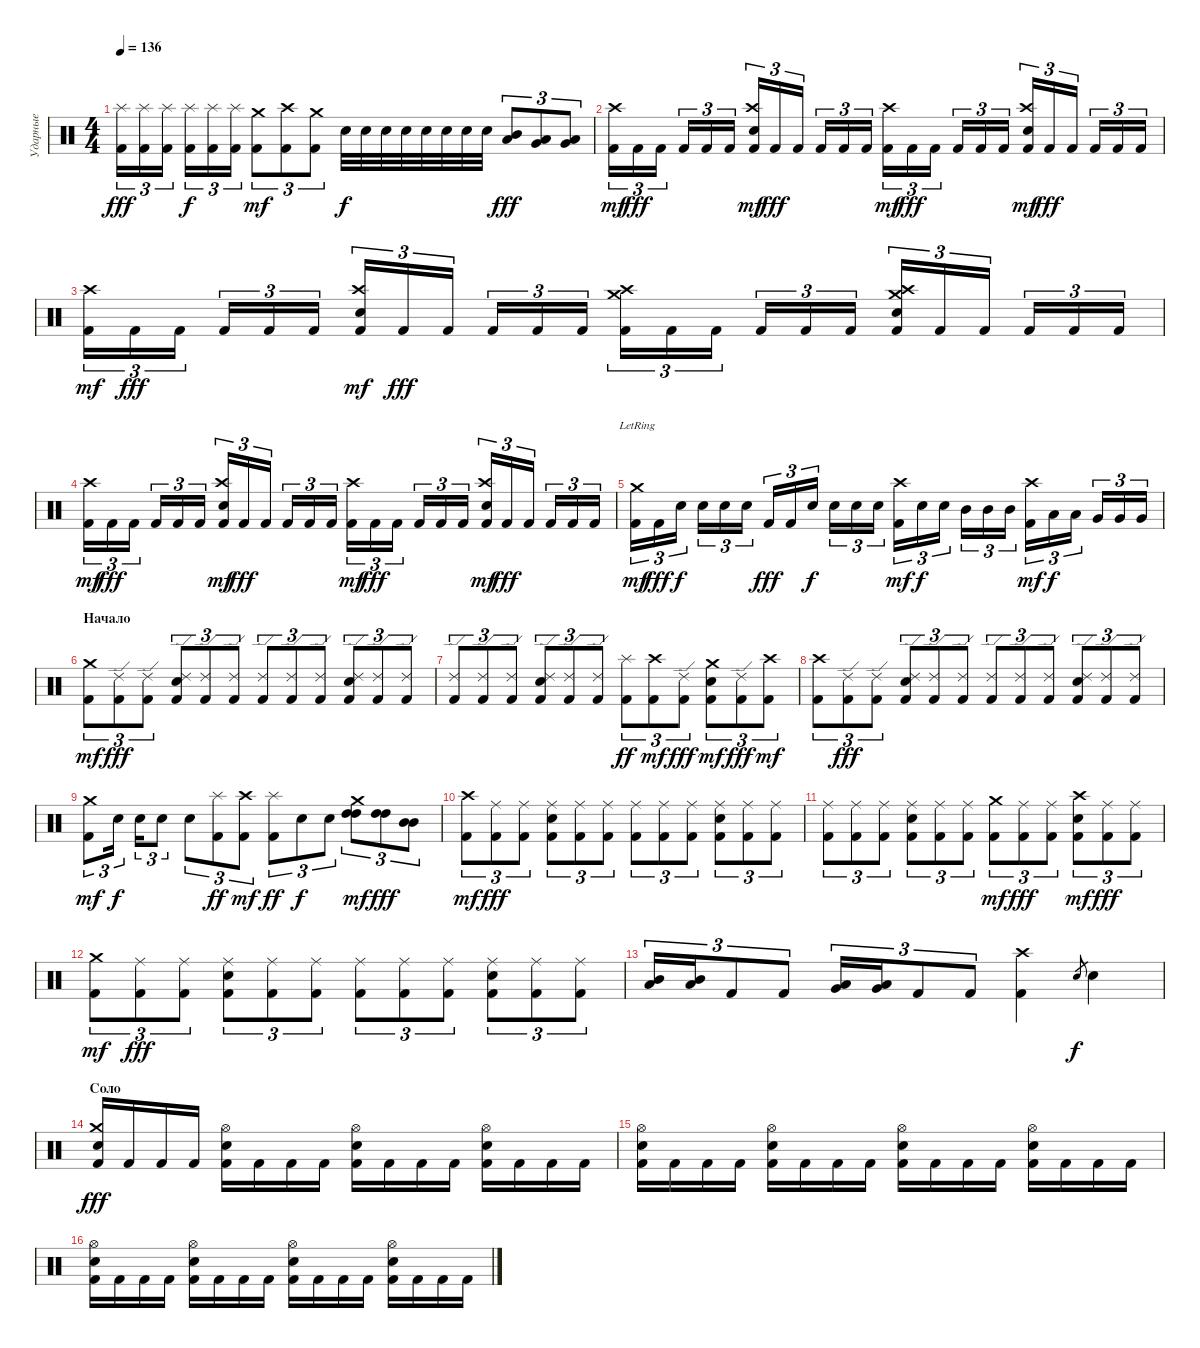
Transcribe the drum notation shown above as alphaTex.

\track ("Ударные" "Ударные") {instrument percussion}
\staff {score}
\articulation defaults
\ts (4 4)
\tempo 136
\clef neutral
\ks c
("Kick (hit) 2" "Splash (hit)").16{tu (3 2) dy fff} ("Kick (hit) 2" "Splash (hit)").16{tu (3 2)} ("Kick (hit) 2" "Splash (hit)").16{tu (3 2)} ("Kick (hit) 2" "Splash (hit)").16{tu (3 2) dy f} ("Kick (hit) 2" "Splash (hit)").16{tu (3 2)} ("Kick (hit) 2" "Splash (hit)").16{tu (3 2)} ("Kick (hit) 2" "Crash medium (hit)").8{tu (3 2) dy mf} ("Kick (hit) 2" "Crash high (hit)").8{tu (3 2)} ("Kick (hit) 2" "Crash medium (hit)").8{tu (3 2)} "Electric Snare (hit)".32{dy f} "Electric Snare (hit)".32 "Electric Snare (hit)".32 "Electric Snare (hit)".32 "Electric Snare (hit)".32 "Electric Snare (hit)".32 "Electric Snare (hit)".32 "Electric Snare (hit)".32 ("Mid Tom (hit)" "Low Tom (hit)").8{tu (3 2) dy fff} ("Low Tom (hit)" "Very Low Tom (hit)").8{tu (3 2)} ("Very Low Tom (hit)" "Low Floor Tom (hit)").8{tu (3 2)} |
("Kick (hit) 2" "Crash high (hit)").16{tu (3 2) dy mf} "Kick (hit) 2".16{tu (3 2) dy fff} "Kick (hit) 2".16{tu (3 2)} "Kick (hit) 2".16{tu (3 2)} "Kick (hit) 2".16{tu (3 2)} "Kick (hit) 2".16{tu (3 2)} ("Kick (hit) 2" "Crash high (hit)" "Electric Snare (hit)").16{tu (3 2) dy mf} "Kick (hit) 2".16{tu (3 2) dy fff} "Kick (hit) 2".16{tu (3 2)} "Kick (hit) 2".16{tu (3 2)} "Kick (hit) 2".16{tu (3 2)} "Kick (hit) 2".16{tu (3 2)} ("Kick (hit) 2" "Crash high (hit)").16{tu (3 2) dy mf} "Kick (hit) 2".16{tu (3 2) dy fff} "Kick (hit) 2".16{tu (3 2)} "Kick (hit) 2".16{tu (3 2)} "Kick (hit) 2".16{tu (3 2)} "Kick (hit) 2".16{tu (3 2)} ("Kick (hit) 2" "Crash high (hit)" "Electric Snare (hit)").16{tu (3 2) dy mf} "Kick (hit) 2".16{tu (3 2) dy fff} "Kick (hit) 2".16{tu (3 2)} "Kick (hit) 2".16{tu (3 2)} "Kick (hit) 2".16{tu (3 2)} "Kick (hit) 2".16{tu (3 2)} |
("Kick (hit) 2" "Crash high (hit)").16{tu (3 2) dy mf} "Kick (hit) 2".16{tu (3 2) dy fff} "Kick (hit) 2".16{tu (3 2)} "Kick (hit) 2".16{tu (3 2)} "Kick (hit) 2".16{tu (3 2)} "Kick (hit) 2".16{tu (3 2)} ("Kick (hit) 2" "Crash high (hit)" "Electric Snare (hit)").16{tu (3 2) dy mf} "Kick (hit) 2".16{tu (3 2) dy fff} "Kick (hit) 2".16{tu (3 2)} "Kick (hit) 2".16{tu (3 2)} "Kick (hit) 2".16{tu (3 2)} "Kick (hit) 2".16{tu (3 2)} ("Kick (hit) 2" "Crash high (hit)" "Crash medium (hit)").16{tu (3 2)} "Kick (hit) 2".16{tu (3 2)} "Kick (hit) 2".16{tu (3 2)} "Kick (hit) 2".16{tu (3 2)} "Kick (hit) 2".16{tu (3 2)} "Kick (hit) 2".16{tu (3 2)} ("Kick (hit) 2" "Crash high (hit)" "Electric Snare (hit)" "Crash medium (hit)").16{tu (3 2)} "Kick (hit) 2".16{tu (3 2)} "Kick (hit) 2".16{tu (3 2)} "Kick (hit) 2".16{tu (3 2)} "Kick (hit) 2".16{tu (3 2)} "Kick (hit) 2".16{tu (3 2)} |
("Kick (hit) 2" "Crash high (hit)").16{tu (3 2) dy mf} "Kick (hit) 2".16{tu (3 2) dy fff} "Kick (hit) 2".16{tu (3 2)} "Kick (hit) 2".16{tu (3 2)} "Kick (hit) 2".16{tu (3 2)} "Kick (hit) 2".16{tu (3 2)} ("Kick (hit) 2" "Crash high (hit)" "Electric Snare (hit)").16{tu (3 2) dy mf} "Kick (hit) 2".16{tu (3 2) dy fff} "Kick (hit) 2".16{tu (3 2)} "Kick (hit) 2".16{tu (3 2)} "Kick (hit) 2".16{tu (3 2)} "Kick (hit) 2".16{tu (3 2)} ("Kick (hit) 2" "Crash high (hit)").16{tu (3 2) dy mf} "Kick (hit) 2".16{tu (3 2) dy fff} "Kick (hit) 2".16{tu (3 2)} "Kick (hit) 2".16{tu (3 2)} "Kick (hit) 2".16{tu (3 2)} "Kick (hit) 2".16{tu (3 2)} ("Kick (hit) 2" "Crash high (hit)" "Electric Snare (hit)").16{tu (3 2) dy mf} "Kick (hit) 2".16{tu (3 2) dy fff} "Kick (hit) 2".16{tu (3 2)} "Kick (hit) 2".16{tu (3 2)} "Kick (hit) 2".16{tu (3 2)} "Kick (hit) 2".16{tu (3 2)} |
("Kick (hit) 2" "Crash medium (hit)"{lr}).16{tu (3 2) dy mf} "Kick (hit) 2".16{tu (3 2) dy fff} "Electric Snare (hit)".16{tu (3 2) dy f} "Electric Snare (hit)".16{tu (3 2)} "Electric Snare (hit)".16{tu (3 2)} "Electric Snare (hit)".16{tu (3 2)} "Kick (hit) 2".16{tu (3 2) dy fff} "Kick (hit) 2".16{tu (3 2)} "Electric Snare (hit)".16{tu (3 2) dy f} "Electric Snare (hit)".16{tu (3 2)} "Electric Snare (hit)".16{tu (3 2)} "Electric Snare (hit)".16{tu (3 2)} ("Kick (hit) 2" "Crash high (hit)").16{tu (3 2) dy mf} "Electric Snare (hit)".16{tu (3 2) dy f} "Electric Snare (hit)".16{tu (3 2)} "Mid Tom (hit)".16{tu (3 2)} "Mid Tom (hit)".16{tu (3 2)} "Mid Tom (hit)".16{tu (3 2)} ("Kick (hit) 2" "Crash high (hit)").16{tu (3 2) dy mf} "Low Tom (hit)".16{tu (3 2) dy f} "Low Tom (hit)".16{tu (3 2)} "Very Low Tom (hit)".16{tu (3 2)} "Very Low Tom (hit)".16{tu (3 2)} "Very Low Tom (hit)".16{tu (3 2)} |
\section ("" "Начало")
("Kick (hit) 2" "Crash medium (hit)").8{tu (3 2) dy mf} ("Kick (hit) 2" "Ride (edge) 2").8{tu (3 2) dy fff} ("Kick (hit) 2" "Ride (edge) 2").8{tu (3 2)} ("Kick (hit) 2" "Electric Snare (hit)" "Ride (edge) 2").8{tu (3 2)} ("Kick (hit) 2" "Ride (edge) 2").8{tu (3 2)} ("Kick (hit) 2" "Ride (edge) 2").8{tu (3 2)} ("Kick (hit) 2" "Ride (edge) 2").8{tu (3 2)} ("Kick (hit) 2" "Ride (edge) 2").8{tu (3 2)} ("Kick (hit) 2" "Ride (edge) 2").8{tu (3 2)} ("Kick (hit) 2" "Electric Snare (hit)" "Ride (edge) 2").8{tu (3 2)} ("Kick (hit) 2" "Ride (edge) 2").8{tu (3 2)} ("Kick (hit) 2" "Ride (edge) 2").8{tu (3 2)} |
("Kick (hit) 2" "Ride (edge) 2").8{tu (3 2)} ("Kick (hit) 2" "Ride (edge) 2").8{tu (3 2)} ("Kick (hit) 2" "Ride (edge) 2").8{tu (3 2)} ("Kick (hit) 2" "Electric Snare (hit)" "Ride (edge) 2").8{tu (3 2)} ("Kick (hit) 2" "Ride (edge) 2").8{tu (3 2)} ("Kick (hit) 2" "Ride (edge) 2").8{tu (3 2)} ("Kick (hit) 2" "Splash (hit)").8{tu (3 2) dy ff} ("Kick (hit) 2" "Crash high (hit)").8{tu (3 2) dy mf} ("Kick (hit) 2" "Ride (edge) 2").8{tu (3 2) dy fff} ("Kick (hit) 2" "Electric Snare (hit)" "Crash medium (hit)").8{tu (3 2) dy mf} ("Kick (hit) 2" "Ride (edge) 2").8{tu (3 2) dy fff} ("Kick (hit) 2" "Crash high (hit)").8{tu (3 2) dy mf} |
("Kick (hit) 2" "Crash high (hit)").8{tu (3 2)} ("Kick (hit) 2" "Ride (edge) 2").8{tu (3 2) dy fff} ("Kick (hit) 2" "Ride (edge) 2").8{tu (3 2)} ("Kick (hit) 2" "Electric Snare (hit)" "Ride (edge) 2").8{tu (3 2)} ("Kick (hit) 2" "Ride (edge) 2").8{tu (3 2)} ("Kick (hit) 2" "Ride (edge) 2").8{tu (3 2)} ("Kick (hit) 2" "Ride (edge) 2").8{tu (3 2)} ("Kick (hit) 2" "Ride (edge) 2").8{tu (3 2)} ("Kick (hit) 2" "Ride (edge) 2").8{tu (3 2)} ("Kick (hit) 2" "Electric Snare (hit)" "Ride (edge) 2").8{tu (3 2)} ("Kick (hit) 2" "Ride (edge) 2").8{tu (3 2)} ("Kick (hit) 2" "Ride (edge) 2").8{tu (3 2)} |
("Kick (hit) 2" "Crash medium (hit)").8{tu (3 2) dy mf} "Electric Snare (hit)".16{tu (3 2) dy f} "Electric Snare (hit)".16{tu (3 2)} "Electric Snare (hit)".8{tu (3 2)} "Electric Snare (hit)".8{tu (3 2)} ("Kick (hit) 2" "Splash (hit)").8{tu (3 2) dy ff} ("Kick (hit) 2" "Crash high (hit)").8{tu (3 2) dy mf} ("Kick (hit) 2" "Splash (hit)").8{tu (3 2) dy ff} "Electric Snare (hit)".8{tu (3 2) dy f} "Electric Snare (hit)".8{tu (3 2)} ("High Tom (hit)" "High Tom (hit)" "Crash medium (hit)").8{tu (3 2) dy mf} ("High Tom (hit)" "High Tom (hit)").8{tu (3 2) dy fff} ("Mid Tom (hit)" "Mid Tom (hit)").8{tu (3 2)} |
("Kick (hit) 2" "Crash high (hit)").8{tu (3 2) dy mf} ("Kick (hit) 2" "Ride (middle)").8{tu (3 2) dy fff} ("Kick (hit) 2" "Ride (middle)").8{tu (3 2)} ("Kick (hit) 2" "Electric Snare (hit)" "Ride (middle)").8{tu (3 2)} ("Kick (hit) 2" "Ride (middle)").8{tu (3 2)} ("Kick (hit) 2" "Ride (middle)").8{tu (3 2)} ("Kick (hit) 2" "Ride (middle)").8{tu (3 2)} ("Kick (hit) 2" "Ride (middle)").8{tu (3 2)} ("Kick (hit) 2" "Ride (middle)").8{tu (3 2)} ("Kick (hit) 2" "Electric Snare (hit)" "Ride (middle)").8{tu (3 2)} ("Kick (hit) 2" "Ride (middle)").8{tu (3 2)} ("Kick (hit) 2" "Ride (middle)").8{tu (3 2)} |
("Kick (hit) 2" "Ride (middle)").8{tu (3 2)} ("Kick (hit) 2" "Ride (middle)").8{tu (3 2)} ("Kick (hit) 2" "Ride (middle)").8{tu (3 2)} ("Kick (hit) 2" "Electric Snare (hit)" "Ride (middle)").8{tu (3 2)} ("Kick (hit) 2" "Ride (middle)").8{tu (3 2)} ("Kick (hit) 2" "Ride (middle)").8{tu (3 2)} ("Kick (hit) 2" "Crash medium (hit)").8{tu (3 2) dy mf} ("Kick (hit) 2" "Ride (middle)").8{tu (3 2) dy fff} ("Kick (hit) 2" "Ride (middle)").8{tu (3 2)} ("Kick (hit) 2" "Electric Snare (hit)" "Crash high (hit)").8{tu (3 2) dy mf} ("Kick (hit) 2" "Ride (middle)").8{tu (3 2) dy fff} ("Kick (hit) 2" "Ride (middle)").8{tu (3 2)} |
("Kick (hit) 2" "Crash medium (hit)").8{tu (3 2) dy mf} ("Kick (hit) 2" "Ride (middle)").8{tu (3 2) dy fff} ("Kick (hit) 2" "Ride (middle)").8{tu (3 2)} ("Kick (hit) 2" "Electric Snare (hit)" "Ride (middle)").8{tu (3 2)} ("Kick (hit) 2" "Ride (middle)").8{tu (3 2)} ("Kick (hit) 2" "Ride (middle)").8{tu (3 2)} ("Kick (hit) 2" "Ride (middle)").8{tu (3 2)} ("Kick (hit) 2" "Ride (middle)").8{tu (3 2)} ("Kick (hit) 2" "Ride (middle)").8{tu (3 2)} ("Kick (hit) 2" "Electric Snare (hit)" "Ride (middle)").8{tu (3 2)} ("Kick (hit) 2" "Ride (middle)").8{tu (3 2)} ("Kick (hit) 2" "Ride (middle)").8{tu (3 2)} |
("Low Tom (hit)" "Mid Tom (hit)").16{tu (3 2)} ("Low Tom (hit)" "Mid Tom (hit)").16{tu (3 2)} "Kick (hit) 2".8{tu (3 2)} "Kick (hit) 2".8{tu (3 2)} ("Very Low Tom (hit)" "Low Tom (hit)").16{tu (3 2)} ("Very Low Tom (hit)" "Low Tom (hit)").16{tu (3 2)} "Kick (hit) 2".8{tu (3 2)} "Kick (hit) 2".8{tu (3 2)} ("Crash high (hit)" "Kick (hit) 2").4 "Electric Snare (hit)".8{gr dy f} "Electric Snare (hit)".4 |
\section ("" "Соло")
("Crash medium (hit)" "Electric Snare (hit)" "Kick (hit) 2").16{dy fff} "Kick (hit) 2".16 "Kick (hit) 2".16 "Kick (hit) 2".16 ("Hi-Hat (open)" "Electric Snare (hit)" "Kick (hit) 2").16 "Kick (hit) 2".16 "Kick (hit) 2".16 "Kick (hit) 2".16 ("Hi-Hat (open)" "Electric Snare (hit)" "Kick (hit) 2").16 "Kick (hit) 2".16 "Kick (hit) 2".16 "Kick (hit) 2".16 ("Hi-Hat (open)" "Electric Snare (hit)" "Kick (hit) 2").16 "Kick (hit) 2".16 "Kick (hit) 2".16 "Kick (hit) 2".16 |
("Hi-Hat (open)" "Electric Snare (hit)" "Kick (hit) 2").16 "Kick (hit) 2".16 "Kick (hit) 2".16 "Kick (hit) 2".16 ("Hi-Hat (open)" "Electric Snare (hit)" "Kick (hit) 2").16 "Kick (hit) 2".16 "Kick (hit) 2".16 "Kick (hit) 2".16 ("Hi-Hat (open)" "Electric Snare (hit)" "Kick (hit) 2").16 "Kick (hit) 2".16 "Kick (hit) 2".16 "Kick (hit) 2".16 ("Hi-Hat (open)" "Electric Snare (hit)" "Kick (hit) 2").16 "Kick (hit) 2".16 "Kick (hit) 2".16 "Kick (hit) 2".16 |
("Hi-Hat (open)" "Electric Snare (hit)" "Kick (hit) 2").16 "Kick (hit) 2".16 "Kick (hit) 2".16 "Kick (hit) 2".16 ("Hi-Hat (open)" "Electric Snare (hit)" "Kick (hit) 2").16 "Kick (hit) 2".16 "Kick (hit) 2".16 "Kick (hit) 2".16 ("Hi-Hat (open)" "Electric Snare (hit)" "Kick (hit) 2").16 "Kick (hit) 2".16 "Kick (hit) 2".16 "Kick (hit) 2".16 ("Hi-Hat (open)" "Electric Snare (hit)" "Kick (hit) 2").16 "Kick (hit) 2".16 "Kick (hit) 2".16 "Kick (hit) 2".16
